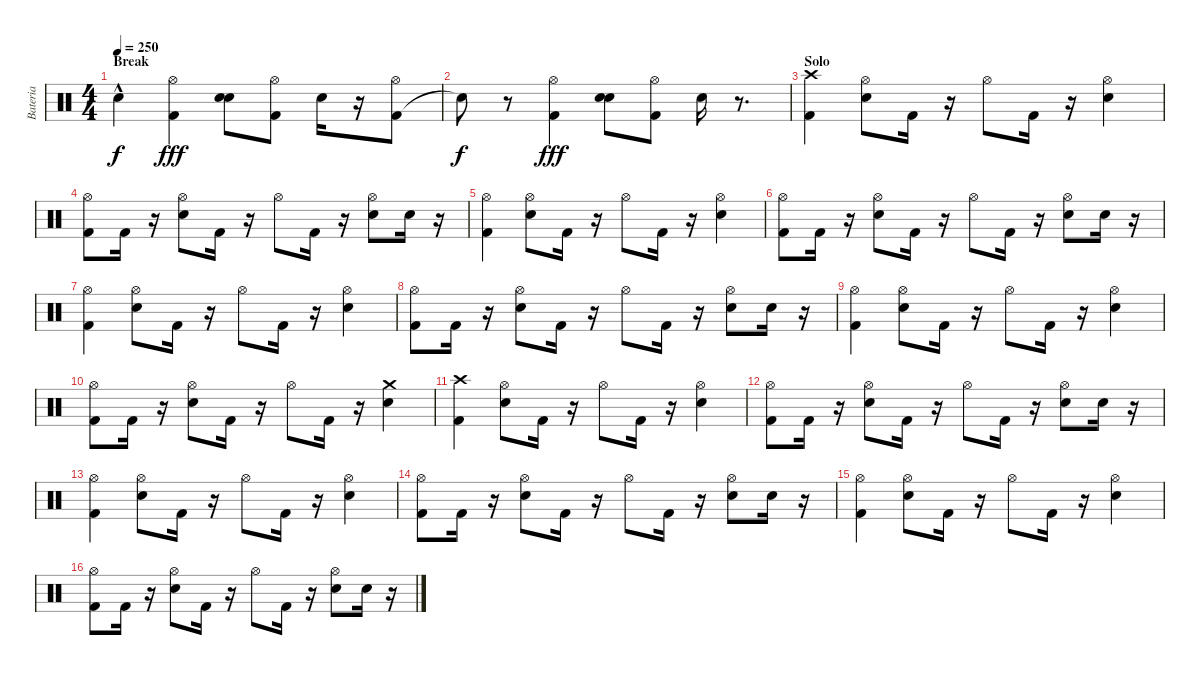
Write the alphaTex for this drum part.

\track ("Bateria" "Bateria") {instrument percussion}
\staff {score}
\articulation defaults
\ts (4 4)
\section ("" "Break")
\tempo 250
\clef neutral
\ks c "Snare (hit)"{hac t}.4{dy f}
("Kick (hit) 2" "Hi-Hat (open)").4{dy fff} ("Electric Snare (hit)" "Electric Snare (hit)").8 ("Kick (hit) 2" "Hi-Hat (open)").8 "Electric Snare (hit)".16 r.16 ("Kick (hit) 2" "Hi-Hat (open)").8 |
"Snare (hit)"{t}.8{dy f} r.8 ("Kick (hit) 2" "Hi-Hat (open)").4{dy fff} ("Electric Snare (hit)" "Electric Snare (hit)").8 ("Kick (hit) 2" "Hi-Hat (open)").8 "Electric Snare (hit)".16 r.8{d} |
\section ("" "Solo")
("Crash high (hit)" "Kick (hit) 2").4 ("Electric Snare (hit)" "Hi-Hat (open)").8 "Kick (hit) 2".16 r.16 "Hi-Hat (open)".8 "Kick (hit) 2".16 r.16 ("Electric Snare (hit)" "Hi-Hat (open)").4 |
("Kick (hit) 2" "Hi-Hat (open)").8 "Kick (hit) 2".16 r.16 ("Electric Snare (hit)" "Hi-Hat (open)").8 "Kick (hit) 2".16 r.16 "Hi-Hat (open)".8 "Kick (hit) 2".16 r.16 ("Electric Snare (hit)" "Hi-Hat (open)").8 "Electric Snare (hit)".16 r.16 |
("Kick (hit) 2" "Hi-Hat (open)").4 ("Electric Snare (hit)" "Hi-Hat (open)").8 "Kick (hit) 2".16 r.16 "Hi-Hat (open)".8 "Kick (hit) 2".16 r.16 ("Electric Snare (hit)" "Hi-Hat (open)").4 |
("Kick (hit) 2" "Hi-Hat (open)").8 "Kick (hit) 2".16 r.16 ("Electric Snare (hit)" "Hi-Hat (open)").8 "Kick (hit) 2".16 r.16 "Hi-Hat (open)".8 "Kick (hit) 2".16 r.16 ("Electric Snare (hit)" "Hi-Hat (open)").8 "Electric Snare (hit)".16 r.16 |
("Kick (hit) 2" "Hi-Hat (open)").4 ("Electric Snare (hit)" "Hi-Hat (open)").8 "Kick (hit) 2".16 r.16 "Hi-Hat (open)".8 "Kick (hit) 2".16 r.16 ("Electric Snare (hit)" "Hi-Hat (open)").4 |
("Kick (hit) 2" "Hi-Hat (open)").8 "Kick (hit) 2".16 r.16 ("Electric Snare (hit)" "Hi-Hat (open)").8 "Kick (hit) 2".16 r.16 "Hi-Hat (open)".8 "Kick (hit) 2".16 r.16 ("Electric Snare (hit)" "Hi-Hat (open)").8 "Electric Snare (hit)".16 r.16 |
("Kick (hit) 2" "Hi-Hat (open)").4 ("Electric Snare (hit)" "Hi-Hat (open)").8 "Kick (hit) 2".16 r.16 "Hi-Hat (open)".8 "Kick (hit) 2".16 r.16 ("Electric Snare (hit)" "Hi-Hat (open)").4 |
("Kick (hit) 2" "Hi-Hat (open)").8 "Kick (hit) 2".16 r.16 ("Electric Snare (hit)" "Hi-Hat (open)").8 "Kick (hit) 2".16 r.16 "Hi-Hat (open)".8 "Kick (hit) 2".16 r.16 ("Electric Snare (hit)" "Crash medium (hit)").4 |
("Crash high (hit)" "Kick (hit) 2").4 ("Electric Snare (hit)" "Hi-Hat (open)").8 "Kick (hit) 2".16 r.16 "Hi-Hat (open)".8 "Kick (hit) 2".16 r.16 ("Electric Snare (hit)" "Hi-Hat (open)").4 |
("Kick (hit) 2" "Hi-Hat (open)").8 "Kick (hit) 2".16 r.16 ("Electric Snare (hit)" "Hi-Hat (open)").8 "Kick (hit) 2".16 r.16 "Hi-Hat (open)".8 "Kick (hit) 2".16 r.16 ("Electric Snare (hit)" "Hi-Hat (open)").8 "Electric Snare (hit)".16 r.16 |
("Kick (hit) 2" "Hi-Hat (open)").4 ("Electric Snare (hit)" "Hi-Hat (open)").8 "Kick (hit) 2".16 r.16 "Hi-Hat (open)".8 "Kick (hit) 2".16 r.16 ("Electric Snare (hit)" "Hi-Hat (open)").4 |
("Kick (hit) 2" "Hi-Hat (open)").8 "Kick (hit) 2".16 r.16 ("Electric Snare (hit)" "Hi-Hat (open)").8 "Kick (hit) 2".16 r.16 "Hi-Hat (open)".8 "Kick (hit) 2".16 r.16 ("Electric Snare (hit)" "Hi-Hat (open)").8 "Electric Snare (hit)".16 r.16 |
("Kick (hit) 2" "Hi-Hat (open)").4 ("Electric Snare (hit)" "Hi-Hat (open)").8 "Kick (hit) 2".16 r.16 "Hi-Hat (open)".8 "Kick (hit) 2".16 r.16 ("Electric Snare (hit)" "Hi-Hat (open)").4 |
("Kick (hit) 2" "Hi-Hat (open)").8 "Kick (hit) 2".16 r.16 ("Electric Snare (hit)" "Hi-Hat (open)").8 "Kick (hit) 2".16 r.16 "Hi-Hat (open)".8 "Kick (hit) 2".16 r.16 ("Electric Snare (hit)" "Hi-Hat (open)").8 "Electric Snare (hit)".16 r.16
